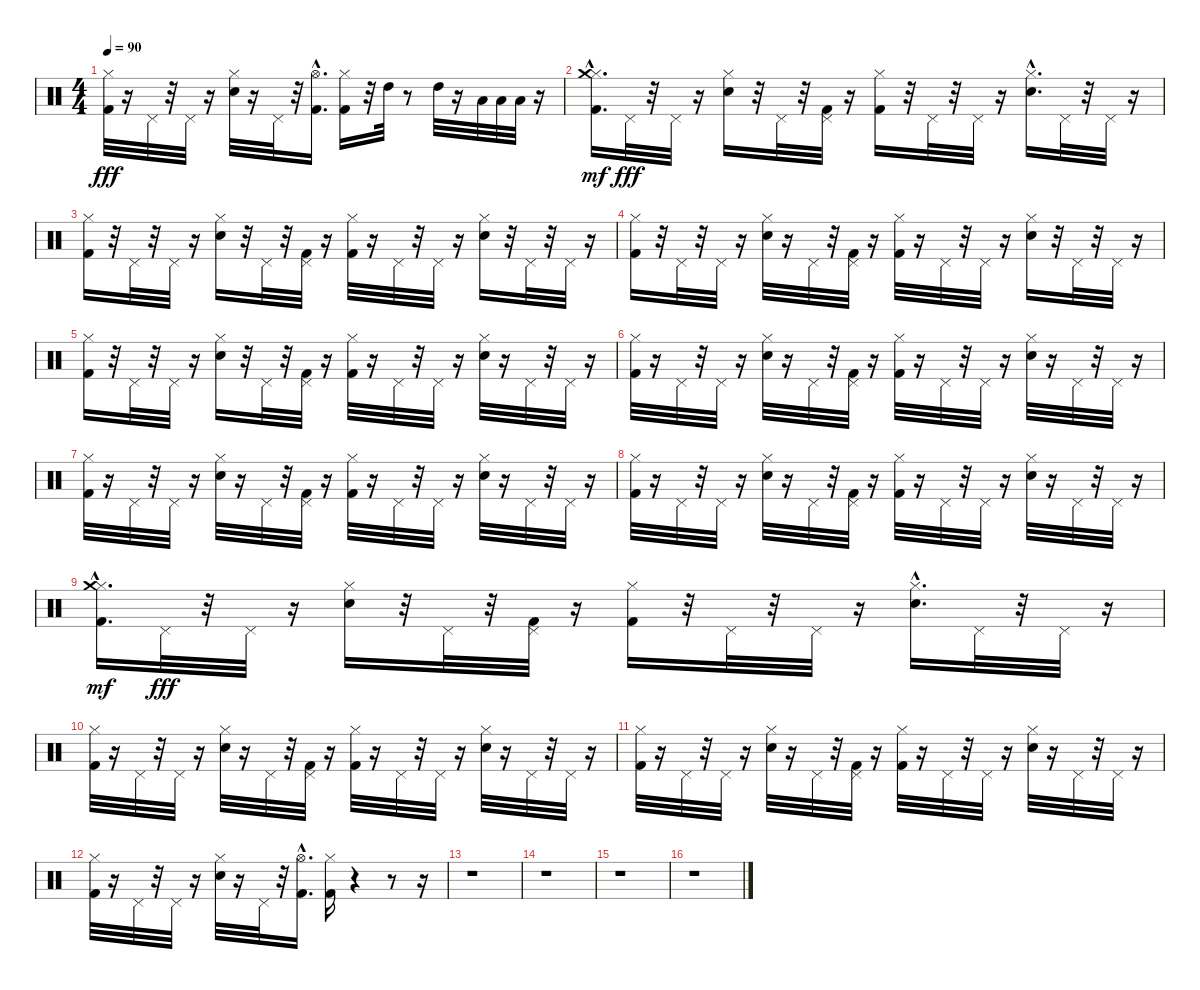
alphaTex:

\track "" {instrument percussion}
\staff {score}
\articulation defaults
\ts (4 4)
\tempo 90
\clef neutral
\ks c
("Kick (hit) 2" "Hi-Hat (closed)").32{dy fff} r.16 "Pedal Hi-Hat (hit)".32 r.32 "Pedal Hi-Hat (hit)".32 r.16 ("Snare (hit) 2" "Hi-Hat (closed)").32 r.16 "Pedal Hi-Hat (hit)".32 r.32 ("Kick (hit) 2" "Hi-Hat (open)"{hac}).16{d} ("Kick (hit) 2" "Hi-Hat (closed)").16 r.32 "High Tom (hit)".32 r.8 "High Tom (hit)".32 r.16 "Low Tom (hit)".32 "Low Tom (hit)".32 "Low Floor Tom (hit)".32 r.16 |
("Kick (hit) 2"{hac} "Hi-Hat (closed)" "Crash medium (hit)").16{d dy mf} "Pedal Hi-Hat (hit)".32{dy fff} r.32 "Pedal Hi-Hat (hit)".32 r.16 ("Snare (hit) 2" "Hi-Hat (closed)").16 r.32 "Pedal Hi-Hat (hit)".32 r.32 ("Kick (hit) 2" "Pedal Hi-Hat (hit)").32 r.16 ("Kick (hit) 2" "Hi-Hat (closed)").16 r.32 "Pedal Hi-Hat (hit)".32 r.32 "Pedal Hi-Hat (hit)".32 r.16 ("Snare (hit) 2"{hac} "Hi-Hat (closed)").16{d} "Pedal Hi-Hat (hit)".32 r.32 "Pedal Hi-Hat (hit)".32 r.16 |
("Kick (hit) 2" "Hi-Hat (closed)").16 r.32 "Pedal Hi-Hat (hit)".32 r.32 "Pedal Hi-Hat (hit)".32 r.16 ("Snare (hit) 2" "Hi-Hat (closed)").16 r.32 "Pedal Hi-Hat (hit)".32 r.32 ("Kick (hit) 2" "Pedal Hi-Hat (hit)").32 r.16 ("Kick (hit) 2" "Hi-Hat (closed)").32 r.16 "Pedal Hi-Hat (hit)".32 r.32 "Pedal Hi-Hat (hit)".32 r.16 ("Snare (hit) 2" "Hi-Hat (closed)").16 r.32 "Pedal Hi-Hat (hit)".32 r.32 "Pedal Hi-Hat (hit)".32 r.16 |
("Kick (hit) 2" "Hi-Hat (closed)").16 r.32 "Pedal Hi-Hat (hit)".32 r.32 "Pedal Hi-Hat (hit)".32 r.16 ("Snare (hit) 2" "Hi-Hat (closed)").32 r.16 "Pedal Hi-Hat (hit)".32 r.32 ("Kick (hit) 2" "Pedal Hi-Hat (hit)").32 r.16 ("Kick (hit) 2" "Hi-Hat (closed)").32 r.16 "Pedal Hi-Hat (hit)".32 r.32 "Pedal Hi-Hat (hit)".32 r.16 ("Snare (hit) 2" "Hi-Hat (closed)").16 r.32 "Pedal Hi-Hat (hit)".32 r.32 "Pedal Hi-Hat (hit)".32 r.16 |
("Kick (hit) 2" "Hi-Hat (closed)").16 r.32 "Pedal Hi-Hat (hit)".32 r.32 "Pedal Hi-Hat (hit)".32 r.16 ("Snare (hit) 2" "Hi-Hat (closed)").16 r.32 "Pedal Hi-Hat (hit)".32 r.32 ("Kick (hit) 2" "Pedal Hi-Hat (hit)").32 r.16 ("Kick (hit) 2" "Hi-Hat (closed)").32 r.16 "Pedal Hi-Hat (hit)".32 r.32 "Pedal Hi-Hat (hit)".32 r.16 ("Snare (hit) 2" "Hi-Hat (closed)").32 r.16 "Pedal Hi-Hat (hit)".32 r.32 "Pedal Hi-Hat (hit)".32 r.16 |
("Kick (hit) 2" "Hi-Hat (closed)").32 r.16 "Pedal Hi-Hat (hit)".32 r.32 "Pedal Hi-Hat (hit)".32 r.16 ("Snare (hit) 2" "Hi-Hat (closed)").32 r.16 "Pedal Hi-Hat (hit)".32 r.32 ("Kick (hit) 2" "Pedal Hi-Hat (hit)").32 r.16 ("Kick (hit) 2" "Hi-Hat (closed)").32 r.16 "Pedal Hi-Hat (hit)".32 r.32 "Pedal Hi-Hat (hit)".32 r.16 ("Snare (hit) 2" "Hi-Hat (closed)").32 r.16 "Pedal Hi-Hat (hit)".32 r.32 "Pedal Hi-Hat (hit)".32 r.16 |
("Kick (hit) 2" "Hi-Hat (closed)").32 r.16 "Pedal Hi-Hat (hit)".32 r.32 "Pedal Hi-Hat (hit)".32 r.16 ("Snare (hit) 2" "Hi-Hat (closed)").32 r.16 "Pedal Hi-Hat (hit)".32 r.32 ("Kick (hit) 2" "Pedal Hi-Hat (hit)").32 r.16 ("Kick (hit) 2" "Hi-Hat (closed)").32 r.16 "Pedal Hi-Hat (hit)".32 r.32 "Pedal Hi-Hat (hit)".32 r.16 ("Snare (hit) 2" "Hi-Hat (closed)").32 r.16 "Pedal Hi-Hat (hit)".32 r.32 "Pedal Hi-Hat (hit)".32 r.16 |
("Kick (hit) 2" "Hi-Hat (closed)").32 r.16 "Pedal Hi-Hat (hit)".32 r.32 "Pedal Hi-Hat (hit)".32 r.16 ("Snare (hit) 2" "Hi-Hat (closed)").32 r.16 "Pedal Hi-Hat (hit)".32 r.32 ("Kick (hit) 2" "Pedal Hi-Hat (hit)").32 r.16 ("Kick (hit) 2" "Hi-Hat (closed)").32 r.16 "Pedal Hi-Hat (hit)".32 r.32 "Pedal Hi-Hat (hit)".32 r.16 ("Snare (hit) 2" "Hi-Hat (closed)").32 r.16 "Pedal Hi-Hat (hit)".32 r.32 "Pedal Hi-Hat (hit)".32 r.16 |
("Kick (hit) 2"{hac} "Hi-Hat (closed)" "Crash medium (hit)").16{d dy mf} "Pedal Hi-Hat (hit)".32{dy fff} r.32 "Pedal Hi-Hat (hit)".32 r.16 ("Snare (hit) 2" "Hi-Hat (closed)").16 r.32 "Pedal Hi-Hat (hit)".32 r.32 ("Kick (hit) 2" "Pedal Hi-Hat (hit)").32 r.16 ("Kick (hit) 2" "Hi-Hat (closed)").16 r.32 "Pedal Hi-Hat (hit)".32 r.32 "Pedal Hi-Hat (hit)".32 r.16 ("Snare (hit) 2"{hac} "Hi-Hat (closed)").16{d} "Pedal Hi-Hat (hit)".32 r.32 "Pedal Hi-Hat (hit)".32 r.16 |
("Kick (hit) 2" "Hi-Hat (closed)").32 r.16 "Pedal Hi-Hat (hit)".32 r.32 "Pedal Hi-Hat (hit)".32 r.16 ("Snare (hit) 2" "Hi-Hat (closed)").32 r.16 "Pedal Hi-Hat (hit)".32 r.32 ("Kick (hit) 2" "Pedal Hi-Hat (hit)").32 r.16 ("Kick (hit) 2" "Hi-Hat (closed)").32 r.16 "Pedal Hi-Hat (hit)".32 r.32 "Pedal Hi-Hat (hit)".32 r.16 ("Snare (hit) 2" "Hi-Hat (closed)").32 r.16 "Pedal Hi-Hat (hit)".32 r.32 "Pedal Hi-Hat (hit)".32 r.16 |
("Kick (hit) 2" "Hi-Hat (closed)").32 r.16 "Pedal Hi-Hat (hit)".32 r.32 "Pedal Hi-Hat (hit)".32 r.16 ("Snare (hit) 2" "Hi-Hat (closed)").32 r.16 "Pedal Hi-Hat (hit)".32 r.32 ("Kick (hit) 2" "Pedal Hi-Hat (hit)").32 r.16 ("Kick (hit) 2" "Hi-Hat (closed)").32 r.16 "Pedal Hi-Hat (hit)".32 r.32 "Pedal Hi-Hat (hit)".32 r.16 ("Snare (hit) 2" "Hi-Hat (closed)").32 r.16 "Pedal Hi-Hat (hit)".32 r.32 "Pedal Hi-Hat (hit)".32 r.16 |
("Kick (hit) 2" "Hi-Hat (closed)").32 r.16 "Pedal Hi-Hat (hit)".32 r.32 "Pedal Hi-Hat (hit)".32 r.16 ("Snare (hit) 2" "Hi-Hat (closed)").32 r.16 "Pedal Hi-Hat (hit)".32 r.32 ("Kick (hit) 2" "Hi-Hat (open)"{hac}).16{d} ("Kick (hit) 2" "Hi-Hat (closed)").16 r.4 r.8 r.16 |
r.1 |
r.1 |
r.1 |
r.1
